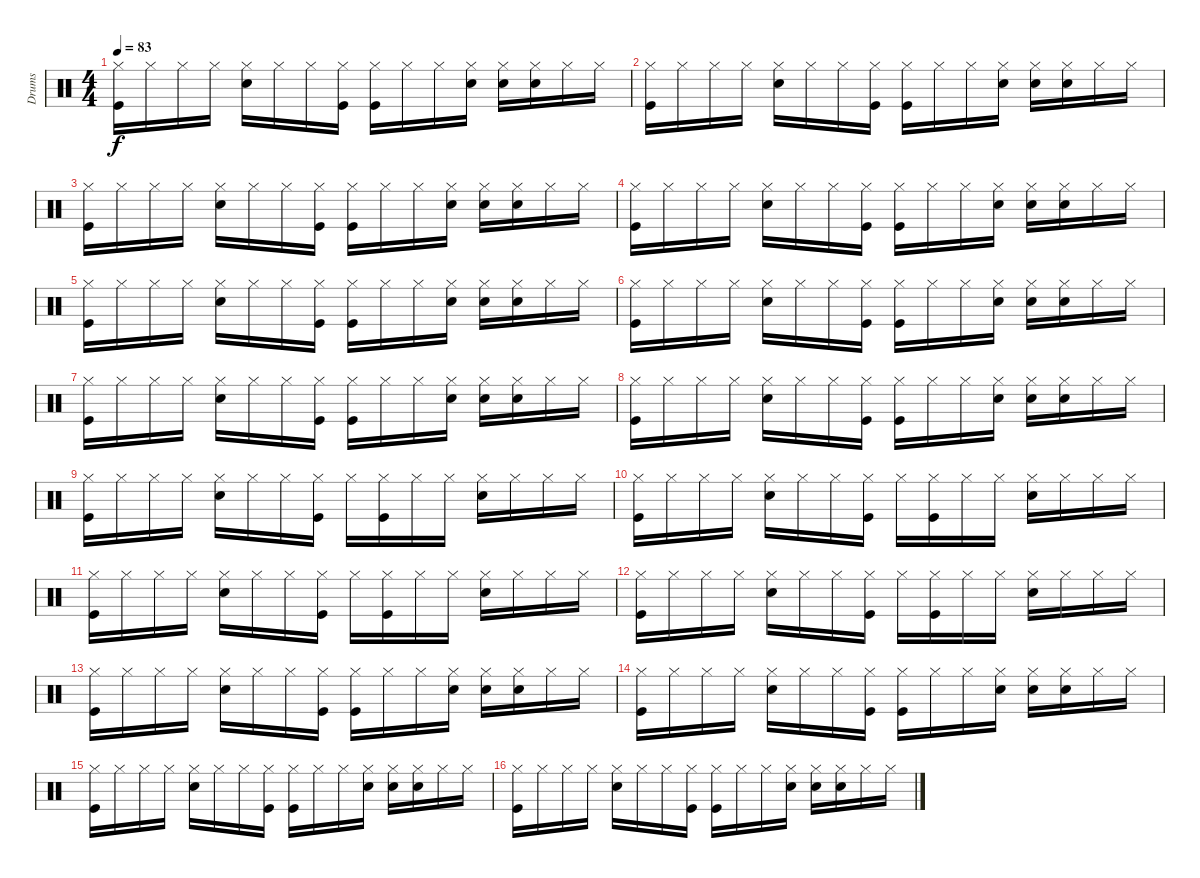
\track ("Drums" "Drums") {instrument percussion}
\staff {score}
\articulation defaults
\ts (4 4)
\tempo 83
\clef neutral
\ks c
("Hi-Hat (closed)" "Kick (hit)").16{dy f} "Hi-Hat (closed)".16 "Hi-Hat (closed)".16 "Hi-Hat (closed)".16 ("Hi-Hat (closed)" "Snare (hit) 2").16 "Hi-Hat (closed)".16 "Hi-Hat (closed)".16 ("Hi-Hat (closed)" "Kick (hit)").16 ("Hi-Hat (closed)" "Kick (hit)").16 "Hi-Hat (closed)".16 "Hi-Hat (closed)".16 ("Hand Clap (hit)" "Hi-Hat (closed)").16 ("Hi-Hat (closed)" "Snare (hit) 2").16 ("Hand Clap (hit)" "Hi-Hat (closed)").16 "Hi-Hat (closed)".16 "Hi-Hat (closed)".16 |
("Hi-Hat (closed)" "Kick (hit)").16 "Hi-Hat (closed)".16 "Hi-Hat (closed)".16 "Hi-Hat (closed)".16 ("Hi-Hat (closed)" "Snare (hit) 2").16 "Hi-Hat (closed)".16 "Hi-Hat (closed)".16 ("Hi-Hat (closed)" "Kick (hit)").16 ("Hi-Hat (closed)" "Kick (hit)").16 "Hi-Hat (closed)".16 "Hi-Hat (closed)".16 ("Hand Clap (hit)" "Hi-Hat (closed)").16 ("Hi-Hat (closed)" "Snare (hit) 2").16 ("Hand Clap (hit)" "Hi-Hat (closed)").16 "Hi-Hat (closed)".16 "Hi-Hat (closed)".16 |
("Hi-Hat (closed)" "Kick (hit)").16 "Hi-Hat (closed)".16 "Hi-Hat (closed)".16 "Hi-Hat (closed)".16 ("Hi-Hat (closed)" "Snare (hit) 2").16 "Hi-Hat (closed)".16 "Hi-Hat (closed)".16 ("Hi-Hat (closed)" "Kick (hit)").16 ("Hi-Hat (closed)" "Kick (hit)").16 "Hi-Hat (closed)".16 "Hi-Hat (closed)".16 ("Hand Clap (hit)" "Hi-Hat (closed)").16 ("Hi-Hat (closed)" "Snare (hit) 2").16 ("Hand Clap (hit)" "Hi-Hat (closed)").16 "Hi-Hat (closed)".16 "Hi-Hat (closed)".16 |
("Hi-Hat (closed)" "Kick (hit)").16 "Hi-Hat (closed)".16 "Hi-Hat (closed)".16 "Hi-Hat (closed)".16 ("Hi-Hat (closed)" "Snare (hit) 2").16 "Hi-Hat (closed)".16 "Hi-Hat (closed)".16 ("Hi-Hat (closed)" "Kick (hit)").16 ("Hi-Hat (closed)" "Kick (hit)").16 "Hi-Hat (closed)".16 "Hi-Hat (closed)".16 ("Hand Clap (hit)" "Hi-Hat (closed)").16 ("Hi-Hat (closed)" "Snare (hit) 2").16 ("Hand Clap (hit)" "Hi-Hat (closed)").16 "Hi-Hat (closed)".16 "Hi-Hat (closed)".16 |
("Hi-Hat (closed)" "Kick (hit)").16 "Hi-Hat (closed)".16 "Hi-Hat (closed)".16 "Hi-Hat (closed)".16 ("Hi-Hat (closed)" "Snare (hit) 2").16 "Hi-Hat (closed)".16 "Hi-Hat (closed)".16 ("Hi-Hat (closed)" "Kick (hit)").16 ("Hi-Hat (closed)" "Kick (hit)").16 "Hi-Hat (closed)".16 "Hi-Hat (closed)".16 ("Hand Clap (hit)" "Hi-Hat (closed)").16 ("Hi-Hat (closed)" "Snare (hit) 2").16 ("Hand Clap (hit)" "Hi-Hat (closed)").16 "Hi-Hat (closed)".16 "Hi-Hat (closed)".16 |
("Hi-Hat (closed)" "Kick (hit)").16 "Hi-Hat (closed)".16 "Hi-Hat (closed)".16 "Hi-Hat (closed)".16 ("Hi-Hat (closed)" "Snare (hit) 2").16 "Hi-Hat (closed)".16 "Hi-Hat (closed)".16 ("Hi-Hat (closed)" "Kick (hit)").16 ("Hi-Hat (closed)" "Kick (hit)").16 "Hi-Hat (closed)".16 "Hi-Hat (closed)".16 ("Hand Clap (hit)" "Hi-Hat (closed)").16 ("Hi-Hat (closed)" "Snare (hit) 2").16 ("Hand Clap (hit)" "Hi-Hat (closed)").16 "Hi-Hat (closed)".16 "Hi-Hat (closed)".16 |
("Hi-Hat (closed)" "Kick (hit)").16 "Hi-Hat (closed)".16 "Hi-Hat (closed)".16 "Hi-Hat (closed)".16 ("Hi-Hat (closed)" "Snare (hit) 2").16 "Hi-Hat (closed)".16 "Hi-Hat (closed)".16 ("Hi-Hat (closed)" "Kick (hit)").16 ("Hi-Hat (closed)" "Kick (hit)").16 "Hi-Hat (closed)".16 "Hi-Hat (closed)".16 ("Hand Clap (hit)" "Hi-Hat (closed)").16 ("Hi-Hat (closed)" "Snare (hit) 2").16 ("Hand Clap (hit)" "Hi-Hat (closed)").16 "Hi-Hat (closed)".16 "Hi-Hat (closed)".16 |
("Hi-Hat (closed)" "Kick (hit)").16 "Hi-Hat (closed)".16 "Hi-Hat (closed)".16 "Hi-Hat (closed)".16 ("Hi-Hat (closed)" "Snare (hit) 2").16 "Hi-Hat (closed)".16 "Hi-Hat (closed)".16 ("Hi-Hat (closed)" "Kick (hit)").16 ("Hi-Hat (closed)" "Kick (hit)").16 "Hi-Hat (closed)".16 "Hi-Hat (closed)".16 ("Hand Clap (hit)" "Hi-Hat (closed)").16 ("Hi-Hat (closed)" "Snare (hit) 2").16 ("Hand Clap (hit)" "Hi-Hat (closed)").16 "Hi-Hat (closed)".16 "Hi-Hat (closed)".16 |
("Hi-Hat (closed)" "Kick (hit)").16 "Hi-Hat (closed)".16 "Hi-Hat (closed)".16 "Hi-Hat (closed)".16 ("Hi-Hat (closed)" "Snare (hit) 2").16 "Hi-Hat (closed)".16 "Hi-Hat (closed)".16 ("Hi-Hat (closed)" "Kick (hit)").16 "Hi-Hat (closed)".16 ("Hi-Hat (closed)" "Kick (hit)").16 "Hi-Hat (closed)".16 "Hi-Hat (closed)".16 ("Hi-Hat (closed)" "Snare (hit) 2").16 "Hi-Hat (closed)".16 "Hi-Hat (closed)".16 "Hi-Hat (closed)".16 |
("Hi-Hat (closed)" "Kick (hit)").16 "Hi-Hat (closed)".16 "Hi-Hat (closed)".16 "Hi-Hat (closed)".16 ("Hi-Hat (closed)" "Snare (hit) 2").16 "Hi-Hat (closed)".16 "Hi-Hat (closed)".16 ("Hi-Hat (closed)" "Kick (hit)").16 "Hi-Hat (closed)".16 ("Hi-Hat (closed)" "Kick (hit)").16 "Hi-Hat (closed)".16 "Hi-Hat (closed)".16 ("Hi-Hat (closed)" "Snare (hit) 2").16 "Hi-Hat (closed)".16 "Hi-Hat (closed)".16 "Hi-Hat (closed)".16 |
("Hi-Hat (closed)" "Kick (hit)").16 "Hi-Hat (closed)".16 "Hi-Hat (closed)".16 "Hi-Hat (closed)".16 ("Hi-Hat (closed)" "Snare (hit) 2").16 "Hi-Hat (closed)".16 "Hi-Hat (closed)".16 ("Hi-Hat (closed)" "Kick (hit)").16 "Hi-Hat (closed)".16 ("Hi-Hat (closed)" "Kick (hit)").16 "Hi-Hat (closed)".16 "Hi-Hat (closed)".16 ("Hi-Hat (closed)" "Snare (hit) 2").16 "Hi-Hat (closed)".16 "Hi-Hat (closed)".16 "Hi-Hat (closed)".16 |
("Hi-Hat (closed)" "Kick (hit)").16 "Hi-Hat (closed)".16 "Hi-Hat (closed)".16 "Hi-Hat (closed)".16 ("Hi-Hat (closed)" "Snare (hit) 2").16 "Hi-Hat (closed)".16 "Hi-Hat (closed)".16 ("Hi-Hat (closed)" "Kick (hit)").16 "Hi-Hat (closed)".16 ("Hi-Hat (closed)" "Kick (hit)").16 "Hi-Hat (closed)".16 "Hi-Hat (closed)".16 ("Hi-Hat (closed)" "Snare (hit) 2").16 "Hi-Hat (closed)".16 "Hi-Hat (closed)".16 "Hi-Hat (closed)".16 |
("Hi-Hat (closed)" "Kick (hit)").16 "Hi-Hat (closed)".16 "Hi-Hat (closed)".16 "Hi-Hat (closed)".16 ("Hi-Hat (closed)" "Snare (hit) 2").16 "Hi-Hat (closed)".16 "Hi-Hat (closed)".16 ("Hi-Hat (closed)" "Kick (hit)").16 ("Hi-Hat (closed)" "Kick (hit)").16 "Hi-Hat (closed)".16 "Hi-Hat (closed)".16 ("Hand Clap (hit)" "Hi-Hat (closed)").16 ("Hi-Hat (closed)" "Snare (hit) 2").16 ("Hand Clap (hit)" "Hi-Hat (closed)").16 "Hi-Hat (closed)".16 "Hi-Hat (closed)".16 |
("Hi-Hat (closed)" "Kick (hit)").16 "Hi-Hat (closed)".16 "Hi-Hat (closed)".16 "Hi-Hat (closed)".16 ("Hi-Hat (closed)" "Snare (hit) 2").16 "Hi-Hat (closed)".16 "Hi-Hat (closed)".16 ("Hi-Hat (closed)" "Kick (hit)").16 ("Hi-Hat (closed)" "Kick (hit)").16 "Hi-Hat (closed)".16 "Hi-Hat (closed)".16 ("Hand Clap (hit)" "Hi-Hat (closed)").16 ("Hi-Hat (closed)" "Snare (hit) 2").16 ("Hand Clap (hit)" "Hi-Hat (closed)").16 "Hi-Hat (closed)".16 "Hi-Hat (closed)".16 |
("Hi-Hat (closed)" "Kick (hit)").16 "Hi-Hat (closed)".16 "Hi-Hat (closed)".16 "Hi-Hat (closed)".16 ("Hi-Hat (closed)" "Snare (hit) 2").16 "Hi-Hat (closed)".16 "Hi-Hat (closed)".16 ("Hi-Hat (closed)" "Kick (hit)").16 ("Hi-Hat (closed)" "Kick (hit)").16 "Hi-Hat (closed)".16 "Hi-Hat (closed)".16 ("Hand Clap (hit)" "Hi-Hat (closed)").16 ("Hi-Hat (closed)" "Snare (hit) 2").16 ("Hand Clap (hit)" "Hi-Hat (closed)").16 "Hi-Hat (closed)".16 "Hi-Hat (closed)".16 |
("Hi-Hat (closed)" "Kick (hit)").16 "Hi-Hat (closed)".16 "Hi-Hat (closed)".16 "Hi-Hat (closed)".16 ("Hi-Hat (closed)" "Snare (hit) 2").16 "Hi-Hat (closed)".16 "Hi-Hat (closed)".16 ("Hi-Hat (closed)" "Kick (hit)").16 ("Hi-Hat (closed)" "Kick (hit)").16 "Hi-Hat (closed)".16 "Hi-Hat (closed)".16 ("Hand Clap (hit)" "Hi-Hat (closed)").16 ("Hi-Hat (closed)" "Snare (hit) 2").16 ("Hand Clap (hit)" "Hi-Hat (closed)").16 "Hi-Hat (closed)".16 "Hi-Hat (closed)".16
